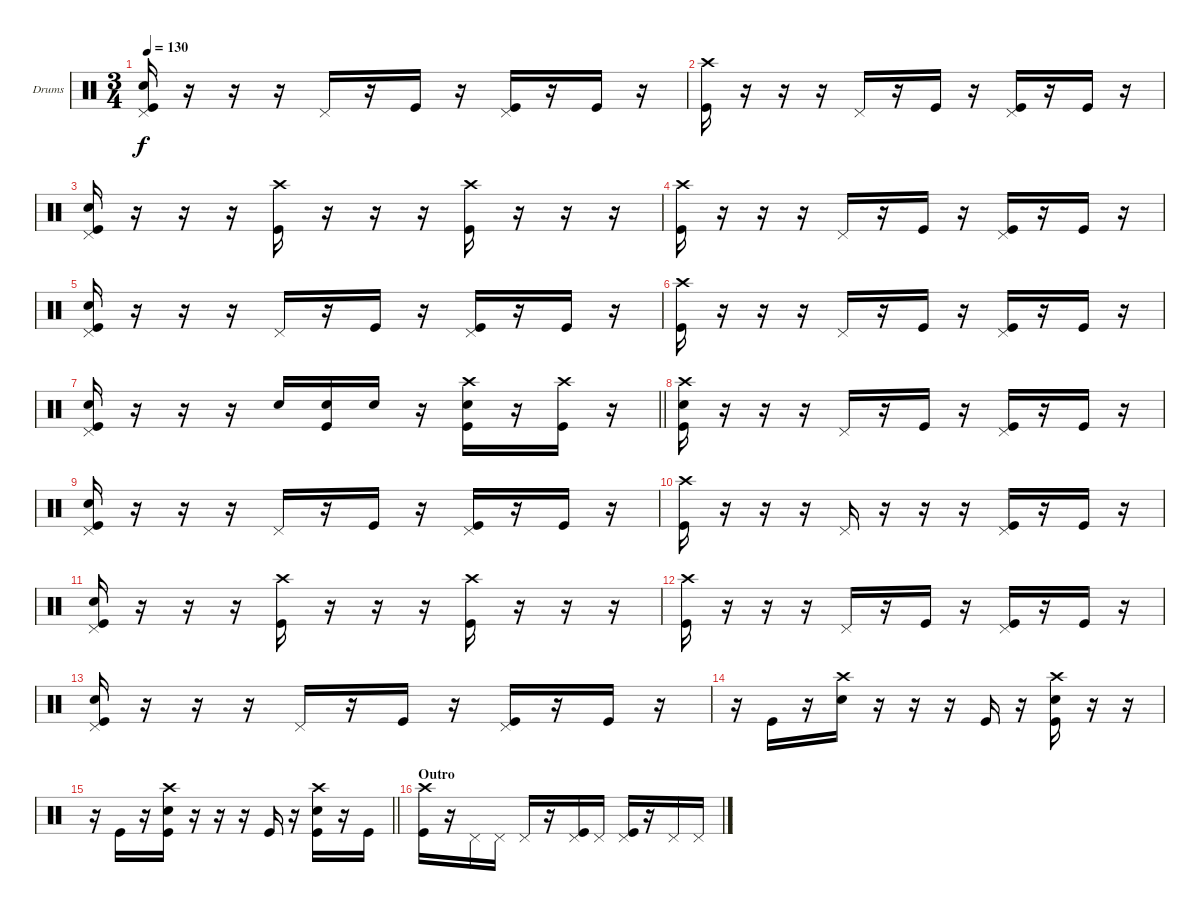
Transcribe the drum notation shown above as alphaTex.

\bracketExtendMode groupsimilarinstruments
\firstSystemTrackNameOrientation horizontal
\otherSystemsTrackNameOrientation horizontal
\track ("Drumkit" "Drums") {instrument percussion}
\staff {score}
\articulation defaults
\ts (3 4)
\tempo 130
\clef neutral
\ks c
("Kick (hit)" "Snare (hit) 2" "Pedal Hi-Hat (hit)").16{dy f} r.16 r.16 r.16 "Pedal Hi-Hat (hit)".16 r.16 "Kick (hit)".16 r.16 ("Kick (hit)" "Pedal Hi-Hat (hit)").16 r.16 "Kick (hit)".16 r.16 |
("Kick (hit)" "Crash high (hit)").16 r.16 r.16 r.16 "Pedal Hi-Hat (hit)".16 r.16 "Kick (hit)".16 r.16 ("Kick (hit)" "Pedal Hi-Hat (hit)").16 r.16 "Kick (hit)".16 r.16 |
("Kick (hit)" "Snare (hit) 2" "Pedal Hi-Hat (hit)").16 r.16 r.16 r.16 ("Kick (hit)" "Crash high (hit)").16 r.16 r.16 r.16 ("Kick (hit)" "Crash high (hit)").16 r.16 r.16 r.16 |
("Kick (hit)" "Crash high (hit)").16 r.16 r.16 r.16 "Pedal Hi-Hat (hit)".16 r.16 "Kick (hit)".16 r.16 ("Kick (hit)" "Pedal Hi-Hat (hit)").16 r.16 "Kick (hit)".16 r.16 |
("Kick (hit)" "Snare (hit) 2" "Pedal Hi-Hat (hit)").16 r.16 r.16 r.16 "Pedal Hi-Hat (hit)".16 r.16 "Kick (hit)".16 r.16 ("Kick (hit)" "Pedal Hi-Hat (hit)").16 r.16 "Kick (hit)".16 r.16 |
("Kick (hit)" "Crash high (hit)").16 r.16 r.16 r.16 "Pedal Hi-Hat (hit)".16 r.16 "Kick (hit)".16 r.16 ("Kick (hit)" "Pedal Hi-Hat (hit)").16 r.16 "Kick (hit)".16 r.16 |
\barLineRight lightlight
("Kick (hit)" "Snare (hit) 2" "Pedal Hi-Hat (hit)").16 r.16 r.16 r.16 "Snare (hit) 2".16 ("Kick (hit)" "Snare (hit) 2").16 "Snare (hit) 2".16 r.16 ("Kick (hit)" "Snare (hit) 2" "Crash high (hit)").16 r.16 ("Kick (hit)" "Crash high (hit)").16 r.16 |
("Kick (hit)" "Snare (hit) 2" "Crash high (hit)").16 r.16 r.16 r.16 "Pedal Hi-Hat (hit)".16 r.16 "Kick (hit)".16 r.16 ("Kick (hit)" "Pedal Hi-Hat (hit)").16 r.16 "Kick (hit)".16 r.16 |
("Kick (hit)" "Snare (hit) 2" "Pedal Hi-Hat (hit)").16 r.16 r.16 r.16 "Pedal Hi-Hat (hit)".16 r.16 "Kick (hit)".16 r.16 ("Kick (hit)" "Pedal Hi-Hat (hit)").16 r.16 "Kick (hit)".16 r.16 |
("Kick (hit)" "Crash high (hit)").16 r.16 r.16 r.16 "Pedal Hi-Hat (hit)".16 r.16 r.16 r.16 ("Kick (hit)" "Pedal Hi-Hat (hit)").16 r.16 "Kick (hit)".16 r.16 |
("Kick (hit)" "Snare (hit) 2" "Pedal Hi-Hat (hit)").16 r.16 r.16 r.16 ("Kick (hit)" "Crash high (hit)").16 r.16 r.16 r.16 ("Kick (hit)" "Crash high (hit)").16 r.16 r.16 r.16 |
("Kick (hit)" "Crash high (hit)").16 r.16 r.16 r.16 "Pedal Hi-Hat (hit)".16 r.16 "Kick (hit)".16 r.16 ("Kick (hit)" "Pedal Hi-Hat (hit)").16 r.16 "Kick (hit)".16 r.16 |
("Kick (hit)" "Snare (hit) 2" "Pedal Hi-Hat (hit)").16 r.16 r.16 r.16 "Pedal Hi-Hat (hit)".16 r.16 "Kick (hit)".16 r.16 ("Kick (hit)" "Pedal Hi-Hat (hit)").16 r.16 "Kick (hit)".16 r.16 |
r.16 "Kick (hit)".16 r.16 ("Snare (hit) 2" "Crash high (hit)").16 r.16 r.16 r.16 "Kick (hit)".16 r.16 ("Kick (hit)" "Snare (hit) 2" "Crash high (hit)").16 r.16 r.16 |
\barLineRight lightlight
r.16 "Kick (hit)".16 r.16 ("Kick (hit)" "Snare (hit) 2" "Crash high (hit)").16 r.16 r.16 r.16 "Kick (hit)".16 r.16 ("Kick (hit)" "Snare (hit) 2" "Crash high (hit)").16 r.16 "Kick (hit)".16 |
\section ("" "Outro")
("Kick (hit)" "Crash high (hit)").16 r.16 "Pedal Hi-Hat (hit)".16 "Pedal Hi-Hat (hit)".16 "Pedal Hi-Hat (hit)".16 r.16 ("Kick (hit)" "Pedal Hi-Hat (hit)").16 "Pedal Hi-Hat (hit)".16 ("Kick (hit)" "Pedal Hi-Hat (hit)").16 r.16 "Pedal Hi-Hat (hit)".16 "Pedal Hi-Hat (hit)".16
